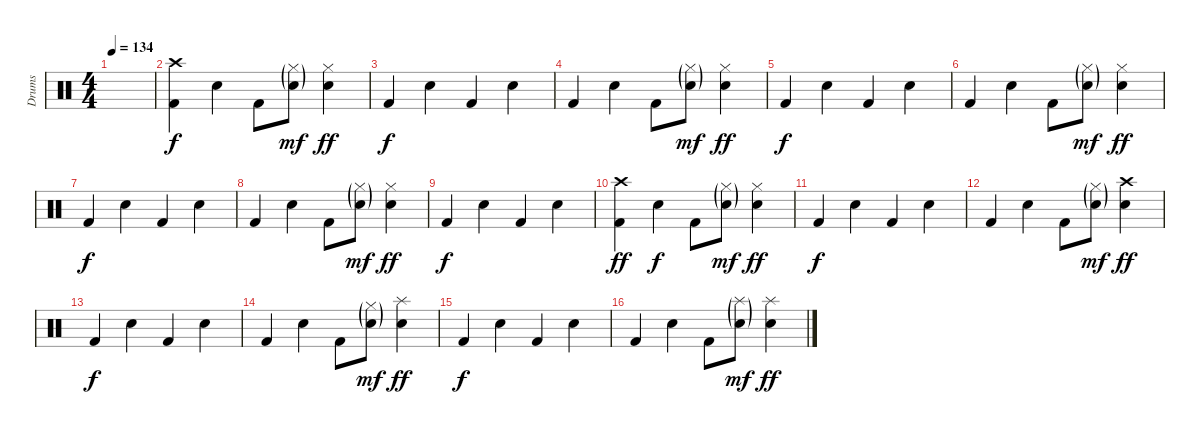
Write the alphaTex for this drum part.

\track ("Drums" "Drums") {instrument percussion}
\staff {score}
\articulation defaults
\ts (4 4)
\tempo 134
\clef neutral
\ks c
|
("Crash high (hit)" "Kick (hit) 2").4{dy f} "Electric Snare (hit)".4 "Kick (hit) 2".8 ("Hi-Hat (closed)"{g} "Electric Snare (hit)"{g}).8{dy mf} ("Hi-Hat (closed)" "Electric Snare (hit)").4{dy ff} |
"Kick (hit) 2".4{dy f} "Electric Snare (hit)".4 "Kick (hit) 2".4 "Electric Snare (hit)".4 |
"Kick (hit) 2".4 "Electric Snare (hit)".4 "Kick (hit) 2".8 ("Hi-Hat (closed)"{g} "Electric Snare (hit)"{g}).8{dy mf} ("Hi-Hat (closed)" "Electric Snare (hit)").4{dy ff} |
"Kick (hit) 2".4{dy f} "Electric Snare (hit)".4 "Kick (hit) 2".4 "Electric Snare (hit)".4 |
"Kick (hit) 2".4 "Electric Snare (hit)".4 "Kick (hit) 2".8 ("Hi-Hat (closed)"{g} "Electric Snare (hit)"{g}).8{dy mf} ("Hi-Hat (closed)" "Electric Snare (hit)").4{dy ff} |
"Kick (hit) 2".4{dy f} "Electric Snare (hit)".4 "Kick (hit) 2".4 "Electric Snare (hit)".4 |
"Kick (hit) 2".4 "Electric Snare (hit)".4 "Kick (hit) 2".8 ("Hi-Hat (closed)"{g} "Electric Snare (hit)"{g}).8{dy mf} ("Hi-Hat (closed)" "Electric Snare (hit)").4{dy ff} |
"Kick (hit) 2".4{dy f} "Electric Snare (hit)".4 "Kick (hit) 2".4 "Electric Snare (hit)".4 |
("Crash high (hit)" "Kick (hit) 2").4{dy ff} "Electric Snare (hit)".4{dy f} "Kick (hit) 2".8 ("Hi-Hat (closed)"{g} "Electric Snare (hit)"{g}).8{dy mf} ("Hi-Hat (closed)" "Electric Snare (hit)").4{dy ff} |
"Kick (hit) 2".4{dy f} "Electric Snare (hit)".4 "Kick (hit) 2".4 "Electric Snare (hit)".4 |
"Kick (hit) 2".4 "Electric Snare (hit)".4 "Kick (hit) 2".8 ("Hi-Hat (closed)"{g} "Electric Snare (hit)"{g}).8{dy mf} ("Crash high (hit)" "Electric Snare (hit)").4{dy ff} |
"Kick (hit) 2".4{dy f} "Electric Snare (hit)".4 "Kick (hit) 2".4 "Electric Snare (hit)".4 |
"Kick (hit) 2".4 "Electric Snare (hit)".4 "Kick (hit) 2".8 ("Hi-Hat (closed)"{g} "Electric Snare (hit)"{g}).8{dy mf} ("Splash (hit)" "Electric Snare (hit)").4{dy ff} |
"Kick (hit) 2".4{dy f} "Electric Snare (hit)".4 "Kick (hit) 2".4 "Electric Snare (hit)".4 |
"Kick (hit) 2".4 "Electric Snare (hit)".4 "Kick (hit) 2".8 ("Splash (hit)"{g} "Electric Snare (hit)"{g}).8{dy mf} ("Splash (hit)" "Electric Snare (hit)").4{dy ff}
